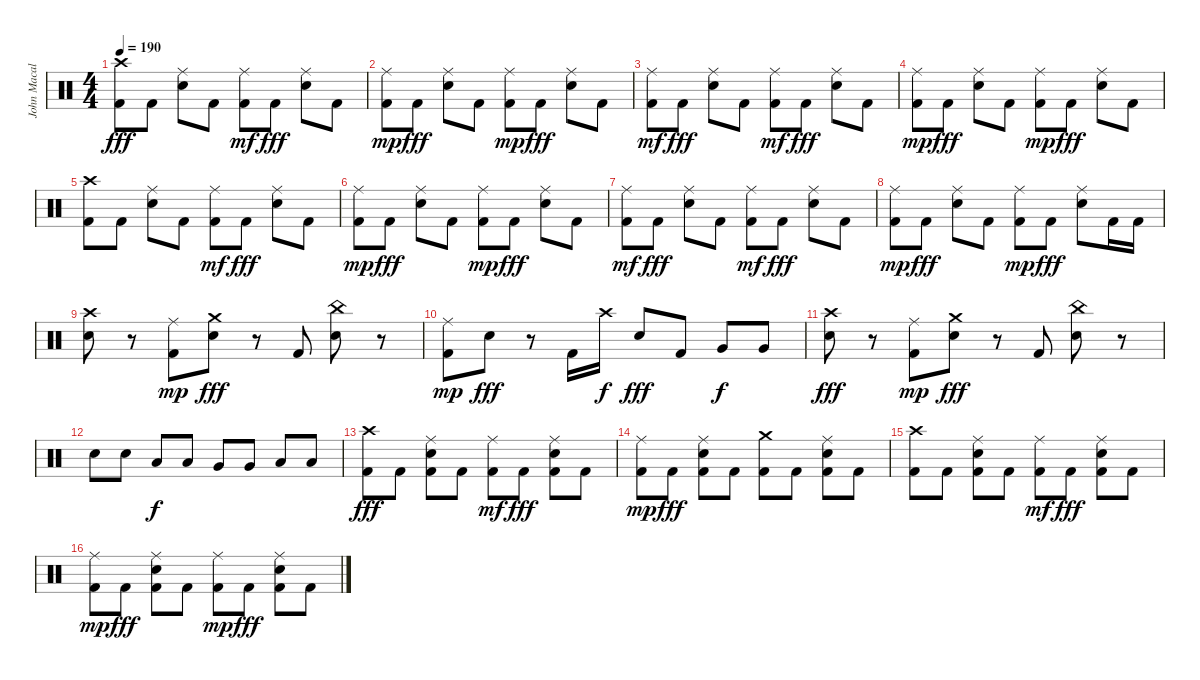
\track ("John Macaluso drums" "John Macal") {instrument percussion}
\staff {score}
\articulation defaults
\ts (4 4)
\tempo 190
\clef neutral
\ks c
("Kick (hit) 2" "Crash high (hit)").8{dy fff} "Kick (hit) 2".8 ("Snare (hit) 2" "Ride (middle)").8 "Kick (hit) 2".8 ("Kick (hit) 2" "Ride (middle)").8{dy mf} "Kick (hit) 2".8{dy fff} ("Snare (hit) 2" "Ride (middle)").8 "Kick (hit) 2".8 |
("Kick (hit) 2" "Ride (middle)").8{dy mp} "Kick (hit) 2".8{dy fff} ("Snare (hit) 2" "Ride (middle)").8 "Kick (hit) 2".8 ("Kick (hit) 2" "Ride (middle)").8{dy mp} "Kick (hit) 2".8{dy fff} ("Snare (hit) 2" "Ride (middle)").8 "Kick (hit) 2".8 |
("Kick (hit) 2" "Ride (middle)").8{dy mf} "Kick (hit) 2".8{dy fff} ("Snare (hit) 2" "Ride (middle)").8 "Kick (hit) 2".8 ("Kick (hit) 2" "Ride (middle)").8{dy mf} "Kick (hit) 2".8{dy fff} ("Snare (hit) 2" "Ride (middle)").8 "Kick (hit) 2".8 |
("Kick (hit) 2" "Ride (middle)").8{dy mp} "Kick (hit) 2".8{dy fff} ("Snare (hit) 2" "Ride (middle)").8 "Kick (hit) 2".8 ("Kick (hit) 2" "Ride (middle)").8{dy mp} "Kick (hit) 2".8{dy fff} ("Snare (hit) 2" "Ride (middle)").8 "Kick (hit) 2".8 |
("Kick (hit) 2" "Crash high (hit)").8 "Kick (hit) 2".8 ("Snare (hit) 2" "Ride (middle)").8 "Kick (hit) 2".8 ("Kick (hit) 2" "Ride (middle)").8{dy mf} "Kick (hit) 2".8{dy fff} ("Snare (hit) 2" "Ride (middle)").8 "Kick (hit) 2".8 |
("Kick (hit) 2" "Ride (middle)").8{dy mp} "Kick (hit) 2".8{dy fff} ("Snare (hit) 2" "Ride (middle)").8 "Kick (hit) 2".8 ("Kick (hit) 2" "Ride (middle)").8{dy mp} "Kick (hit) 2".8{dy fff} ("Snare (hit) 2" "Ride (middle)").8 "Kick (hit) 2".8 |
("Kick (hit) 2" "Ride (middle)").8{dy mf} "Kick (hit) 2".8{dy fff} ("Snare (hit) 2" "Ride (middle)").8 "Kick (hit) 2".8 ("Kick (hit) 2" "Ride (middle)").8{dy mf} "Kick (hit) 2".8{dy fff} ("Snare (hit) 2" "Ride (middle)").8 "Kick (hit) 2".8 |
("Kick (hit) 2" "Ride (middle)").8{dy mp} "Kick (hit) 2".8{dy fff} ("Snare (hit) 2" "Ride (middle)").8 "Kick (hit) 2".8 ("Kick (hit) 2" "Ride (middle)").8{dy mp} "Kick (hit) 2".8{dy fff} ("Snare (hit) 2" "Ride (middle)").8 "Kick (hit) 2".16 "Kick (hit) 2".16 |
("Snare (hit) 2" "Crash high (hit)").8 r.8 ("Kick (hit) 2" "Ride (middle)").8{dy mp} ("Snare (hit) 2" "Crash medium (hit)").8{dy fff} r.8 "Kick (hit) 2".8 ("Snare (hit) 2" "China (hit)").8 r.8 |
("Kick (hit) 2" "Ride (middle)").8{dy mp} "Snare (hit) 2".8{dy fff} r.8 "Kick (hit) 2".16 "Crash high (hit)".16{dy f} "Snare (hit) 2".8{dy fff} "Kick (hit) 2".8 "Very Low Tom (hit)".8{dy f} "Very Low Tom (hit)".8 |
("Snare (hit) 2" "Crash high (hit)").8{dy fff} r.8 ("Kick (hit) 2" "Ride (middle)").8{dy mp} ("Snare (hit) 2" "Crash medium (hit)").8{dy fff} r.8 "Kick (hit) 2".8 ("Snare (hit) 2" "China (hit)").8 r.8 |
"Snare (hit) 2".8 "Snare (hit) 2".8 "Low Tom (hit)".8{dy f} "Low Tom (hit)".8 "Very Low Tom (hit)".8 "Very Low Tom (hit)".8 "Low Floor Tom (hit)".8 "Low Floor Tom (hit)".8 |
("Kick (hit) 2" "Crash high (hit)").8{dy fff} "Kick (hit) 2".8 ("Kick (hit) 2" "Snare (hit) 2" "Ride (middle)").8 "Kick (hit) 2".8 ("Kick (hit) 2" "Ride (middle)").8{dy mf} "Kick (hit) 2".8{dy fff} ("Kick (hit) 2" "Snare (hit) 2" "Ride (middle)").8 "Kick (hit) 2".8 |
("Kick (hit) 2" "Ride (middle)").8{dy mp} "Kick (hit) 2".8{dy fff} ("Kick (hit) 2" "Snare (hit) 2" "Ride (middle)").8 "Kick (hit) 2".8 ("Kick (hit) 2" "Crash medium (hit)").8 "Kick (hit) 2".8 ("Kick (hit) 2" "Snare (hit) 2" "Ride (middle)").8 "Kick (hit) 2".8 |
("Kick (hit) 2" "Crash high (hit)").8 "Kick (hit) 2".8 ("Kick (hit) 2" "Snare (hit) 2" "Ride (middle)").8 "Kick (hit) 2".8 ("Kick (hit) 2" "Ride (middle)").8{dy mf} "Kick (hit) 2".8{dy fff} ("Kick (hit) 2" "Snare (hit) 2" "Ride (middle)").8 "Kick (hit) 2".8 |
("Kick (hit) 2" "Ride (middle)").8{dy mp} "Kick (hit) 2".8{dy fff} ("Kick (hit) 2" "Snare (hit) 2" "Ride (middle)").8 "Kick (hit) 2".8 ("Kick (hit) 2" "Ride (middle)").8{dy mp} "Kick (hit) 2".8{dy fff} ("Kick (hit) 2" "Snare (hit) 2" "Ride (middle)").8 "Kick (hit) 2".8
